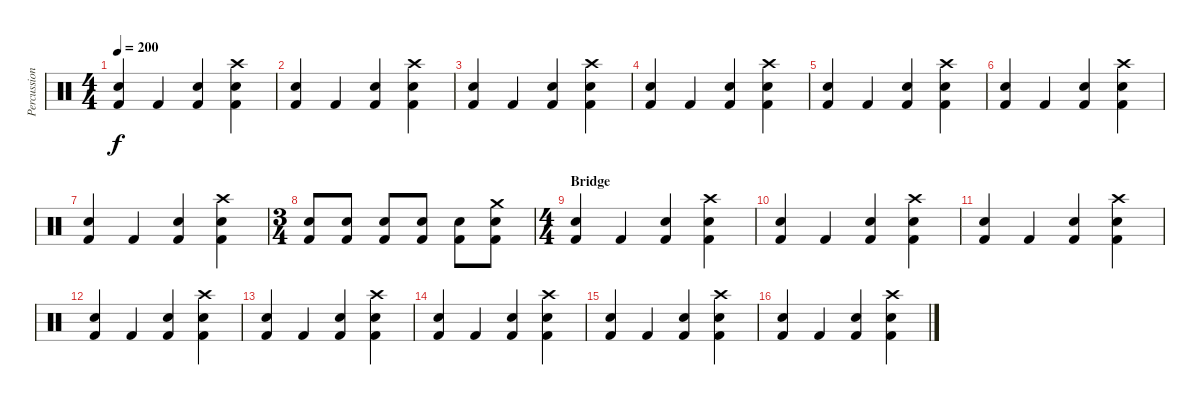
\track ("Percussion" "Percussion") {instrument percussion}
\staff {score}
\articulation defaults
\ts (4 4)
\tempo 200
\clef neutral
\ks c
("Snare (hit) 2" "Kick (hit) 2").4{dy f} "Kick (hit) 2".4 ("Snare (hit) 2" "Kick (hit) 2").4 ("Crash high (hit)" "Snare (hit) 2" "Kick (hit) 2").4 |
("Snare (hit) 2" "Kick (hit) 2").4 "Kick (hit) 2".4 ("Snare (hit) 2" "Kick (hit) 2").4 ("Crash high (hit)" "Snare (hit) 2" "Kick (hit) 2").4 |
("Snare (hit) 2" "Kick (hit) 2").4 "Kick (hit) 2".4 ("Snare (hit) 2" "Kick (hit) 2").4 ("Crash high (hit)" "Snare (hit) 2" "Kick (hit) 2").4 |
("Snare (hit) 2" "Kick (hit) 2").4 "Kick (hit) 2".4 ("Snare (hit) 2" "Kick (hit) 2").4 ("Crash high (hit)" "Snare (hit) 2" "Kick (hit) 2").4 |
("Snare (hit) 2" "Kick (hit) 2").4 "Kick (hit) 2".4 ("Snare (hit) 2" "Kick (hit) 2").4 ("Crash high (hit)" "Snare (hit) 2" "Kick (hit) 2").4 |
("Snare (hit) 2" "Kick (hit) 2").4 "Kick (hit) 2".4 ("Snare (hit) 2" "Kick (hit) 2").4 ("Crash high (hit)" "Snare (hit) 2" "Kick (hit) 2").4 |
("Snare (hit) 2" "Kick (hit) 2").4 "Kick (hit) 2".4 ("Snare (hit) 2" "Kick (hit) 2").4 ("Crash high (hit)" "Snare (hit) 2" "Kick (hit) 2").4 |
\ts (3 4)
("Snare (hit) 2" "Kick (hit) 2").8 ("Snare (hit) 2" "Kick (hit) 2").8 ("Snare (hit) 2" "Kick (hit) 2").8 ("Snare (hit) 2" "Kick (hit) 2").8 ("Snare (hit) 2" "Kick (hit) 2").8 ("Crash medium (hit)" "Snare (hit) 2" "Kick (hit) 2").8 |
\ts (4 4)
\section ("" "Bridge")
("Snare (hit) 2" "Kick (hit) 2").4 "Kick (hit) 2".4 ("Snare (hit) 2" "Kick (hit) 2").4 ("Crash high (hit)" "Snare (hit) 2" "Kick (hit) 2").4 |
("Snare (hit) 2" "Kick (hit) 2").4 "Kick (hit) 2".4 ("Snare (hit) 2" "Kick (hit) 2").4 ("Crash high (hit)" "Snare (hit) 2" "Kick (hit) 2").4 |
("Snare (hit) 2" "Kick (hit) 2").4 "Kick (hit) 2".4 ("Snare (hit) 2" "Kick (hit) 2").4 ("Crash high (hit)" "Snare (hit) 2" "Kick (hit) 2").4 |
("Snare (hit) 2" "Kick (hit) 2").4 "Kick (hit) 2".4 ("Snare (hit) 2" "Kick (hit) 2").4 ("Crash high (hit)" "Snare (hit) 2" "Kick (hit) 2").4 |
("Snare (hit) 2" "Kick (hit) 2").4 "Kick (hit) 2".4 ("Snare (hit) 2" "Kick (hit) 2").4 ("Crash high (hit)" "Snare (hit) 2" "Kick (hit) 2").4 |
("Snare (hit) 2" "Kick (hit) 2").4 "Kick (hit) 2".4 ("Snare (hit) 2" "Kick (hit) 2").4 ("Crash high (hit)" "Snare (hit) 2" "Kick (hit) 2").4 |
("Snare (hit) 2" "Kick (hit) 2").4 "Kick (hit) 2".4 ("Snare (hit) 2" "Kick (hit) 2").4 ("Crash high (hit)" "Snare (hit) 2" "Kick (hit) 2").4 |
("Snare (hit) 2" "Kick (hit) 2").4 "Kick (hit) 2".4 ("Snare (hit) 2" "Kick (hit) 2").4 ("Crash high (hit)" "Snare (hit) 2" "Kick (hit) 2").4
